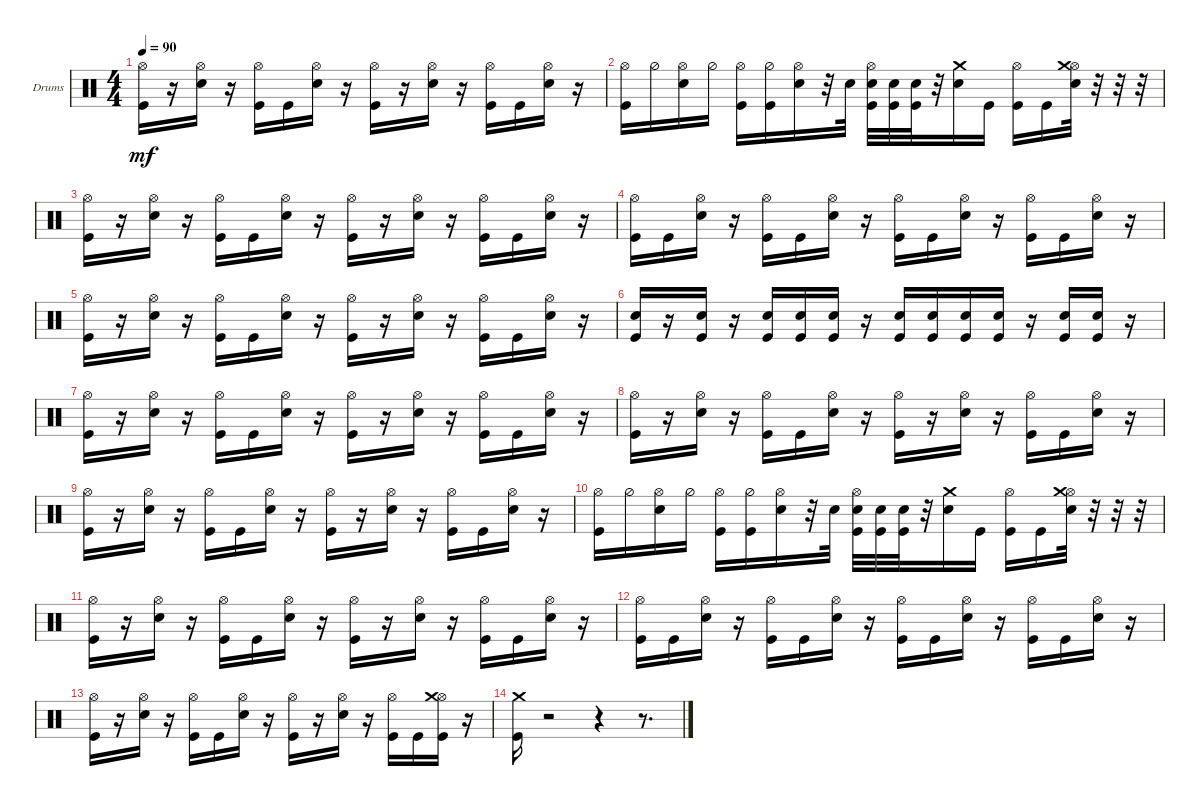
\bracketExtendMode groupsimilarinstruments
\firstSystemTrackNameOrientation horizontal
\otherSystemsTrackNameOrientation horizontal
\track ("Drumkit" "Drums") {instrument percussion}
\staff {score}
\articulation defaults
\ts (4 4)
\tempo 90
\clef neutral
\ks c
("Hi-Hat (open)" "Kick (hit)").16{dy mf} r.16 ("Hi-Hat (open)" "Snare (hit) 2").16 r.16 ("Hi-Hat (open)" "Kick (hit)").16 "Kick (hit)".16 ("Hi-Hat (open)" "Snare (hit) 2").16 r.16 ("Hi-Hat (open)" "Kick (hit)").16 r.16 ("Hi-Hat (open)" "Snare (hit) 2").16 r.16 ("Hi-Hat (open)" "Kick (hit)").16 "Kick (hit)".16 ("Hi-Hat (open)" "Snare (hit) 2").16 r.16 |
("Hi-Hat (open)" "Kick (hit)").16 "Hi-Hat (half)".16 ("Hi-Hat (open)" "Snare (hit) 2").16 "Hi-Hat (half)".16 ("Hi-Hat (open)" "Kick (hit)").16 ("Kick (hit)" "Hi-Hat (half)").16 ("Hi-Hat (open)" "Snare (hit) 2").16 r.32 "Snare (hit) 2".32 ("Hi-Hat (open)" "Snare (hit) 2" "Kick (hit)").32 ("Kick (hit)" "Snare (hit) 2").32 ("Kick (hit)" "Snare (hit) 2").32 r.32 ("Crash medium (hit)" "Snare (hit) 2").16 "Kick (hit)".16 ("Hi-Hat (open)" "Kick (hit)").16 "Kick (hit)".16 ("Hi-Hat (open)" "Crash medium (hit)" "Snare (hit) 2").32 r.32 r.32 r.32 |
("Hi-Hat (open)" "Kick (hit)").16 r.16 ("Hi-Hat (open)" "Snare (hit) 2").16 r.16 ("Hi-Hat (open)" "Kick (hit)").16 "Kick (hit)".16 ("Hi-Hat (open)" "Snare (hit) 2").16 r.16 ("Hi-Hat (open)" "Kick (hit)").16 r.16 ("Hi-Hat (open)" "Snare (hit) 2").16 r.16 ("Hi-Hat (open)" "Kick (hit)").16 "Kick (hit)".16 ("Hi-Hat (open)" "Snare (hit) 2").16 r.16 |
("Hi-Hat (open)" "Kick (hit)").16 "Kick (hit)".16 ("Hi-Hat (open)" "Snare (hit) 2").16 r.16 ("Hi-Hat (open)" "Kick (hit)").16 "Kick (hit)".16 ("Hi-Hat (open)" "Snare (hit) 2").16 r.16 ("Hi-Hat (open)" "Kick (hit)").16 "Kick (hit)".16 ("Hi-Hat (open)" "Snare (hit) 2").16 r.16 ("Hi-Hat (open)" "Kick (hit)").16 "Kick (hit)".16 ("Hi-Hat (open)" "Snare (hit) 2").16 r.16 |
("Hi-Hat (open)" "Kick (hit)").16 r.16 ("Hi-Hat (open)" "Snare (hit) 2").16 r.16 ("Hi-Hat (open)" "Kick (hit)").16 "Kick (hit)".16 ("Hi-Hat (open)" "Snare (hit) 2").16 r.16 ("Hi-Hat (open)" "Kick (hit)").16 r.16 ("Hi-Hat (open)" "Snare (hit) 2").16 r.16 ("Hi-Hat (open)" "Kick (hit)").16 "Kick (hit)".16 ("Hi-Hat (open)" "Snare (hit) 2").16 r.16 |
("Kick (hit)" "Snare (hit) 2").16 r.16 ("Kick (hit)" "Snare (hit) 2").16 r.16 ("Kick (hit)" "Snare (hit) 2").16 ("Kick (hit)" "Snare (hit) 2").16 ("Kick (hit)" "Snare (hit) 2").16 r.16 ("Kick (hit)" "Snare (hit) 2").16 ("Kick (hit)" "Snare (hit) 2").16 ("Kick (hit)" "Snare (hit) 2").16 ("Kick (hit)" "Snare (hit) 2").16 r.16 ("Kick (hit)" "Snare (hit) 2").16 ("Kick (hit)" "Snare (hit) 2").16 r.16 |
("Hi-Hat (open)" "Kick (hit)").16 r.16 ("Hi-Hat (open)" "Snare (hit) 2").16 r.16 ("Hi-Hat (open)" "Kick (hit)").16 "Kick (hit)".16 ("Hi-Hat (open)" "Snare (hit) 2").16 r.16 ("Hi-Hat (open)" "Kick (hit)").16 r.16 ("Hi-Hat (open)" "Snare (hit) 2").16 r.16 ("Hi-Hat (open)" "Kick (hit)").16 "Kick (hit)".16 ("Hi-Hat (open)" "Snare (hit) 2").16 r.16 |
("Hi-Hat (open)" "Kick (hit)").16 r.16 ("Hi-Hat (open)" "Snare (hit) 2").16 r.16 ("Hi-Hat (open)" "Kick (hit)").16 "Kick (hit)".16 ("Hi-Hat (open)" "Snare (hit) 2").16 r.16 ("Hi-Hat (open)" "Kick (hit)").16 r.16 ("Hi-Hat (open)" "Snare (hit) 2").16 r.16 ("Hi-Hat (open)" "Kick (hit)").16 "Kick (hit)".16 ("Hi-Hat (open)" "Snare (hit) 2").16 r.16 |
("Hi-Hat (open)" "Kick (hit)").16 r.16 ("Hi-Hat (open)" "Snare (hit) 2").16 r.16 ("Hi-Hat (open)" "Kick (hit)").16 "Kick (hit)".16 ("Hi-Hat (open)" "Snare (hit) 2").16 r.16 ("Hi-Hat (open)" "Kick (hit)").16 r.16 ("Hi-Hat (open)" "Snare (hit) 2").16 r.16 ("Hi-Hat (open)" "Kick (hit)").16 "Kick (hit)".16 ("Hi-Hat (open)" "Snare (hit) 2").16 r.16 |
("Hi-Hat (open)" "Kick (hit)").16 "Hi-Hat (half)".16 ("Hi-Hat (open)" "Snare (hit) 2").16 "Hi-Hat (half)".16 ("Hi-Hat (open)" "Kick (hit)").16 ("Kick (hit)" "Hi-Hat (half)").16 ("Hi-Hat (open)" "Snare (hit) 2").16 r.32 "Snare (hit) 2".32 ("Hi-Hat (open)" "Snare (hit) 2" "Kick (hit)").32 ("Kick (hit)" "Snare (hit) 2").32 ("Kick (hit)" "Snare (hit) 2").32 r.32 ("Crash medium (hit)" "Snare (hit) 2").16 "Kick (hit)".16 ("Hi-Hat (open)" "Kick (hit)").16 "Kick (hit)".16 ("Hi-Hat (open)" "Crash medium (hit)" "Snare (hit) 2").32 r.32 r.32 r.32 |
("Hi-Hat (open)" "Kick (hit)").16 r.16 ("Hi-Hat (open)" "Snare (hit) 2").16 r.16 ("Hi-Hat (open)" "Kick (hit)").16 "Kick (hit)".16 ("Hi-Hat (open)" "Snare (hit) 2").16 r.16 ("Hi-Hat (open)" "Kick (hit)").16 r.16 ("Hi-Hat (open)" "Snare (hit) 2").16 r.16 ("Hi-Hat (open)" "Kick (hit)").16 "Kick (hit)".16 ("Hi-Hat (open)" "Snare (hit) 2").16 r.16 |
("Hi-Hat (open)" "Kick (hit)").16 "Kick (hit)".16 ("Hi-Hat (open)" "Snare (hit) 2").16 r.16 ("Hi-Hat (open)" "Kick (hit)").16 "Kick (hit)".16 ("Hi-Hat (open)" "Snare (hit) 2").16 r.16 ("Hi-Hat (open)" "Kick (hit)").16 "Kick (hit)".16 ("Hi-Hat (open)" "Snare (hit) 2").16 r.16 ("Hi-Hat (open)" "Kick (hit)").16 "Kick (hit)".16 ("Hi-Hat (open)" "Snare (hit) 2").16 r.16 |
("Hi-Hat (open)" "Kick (hit)").16 r.16 ("Hi-Hat (open)" "Snare (hit) 2").16 r.16 ("Hi-Hat (open)" "Kick (hit)").16 "Kick (hit)".16 ("Hi-Hat (open)" "Snare (hit) 2").16 r.16 ("Hi-Hat (open)" "Kick (hit)").16 r.16 ("Hi-Hat (open)" "Snare (hit) 2").16 r.16 ("Hi-Hat (open)" "Kick (hit)").16 "Kick (hit)".16 ("Hi-Hat (open)" "Crash medium (hit)" "Kick (hit)").16 r.16 |
("Crash medium (hit)" "Kick (hit)").16 r.2 r.4 r.8{d}
